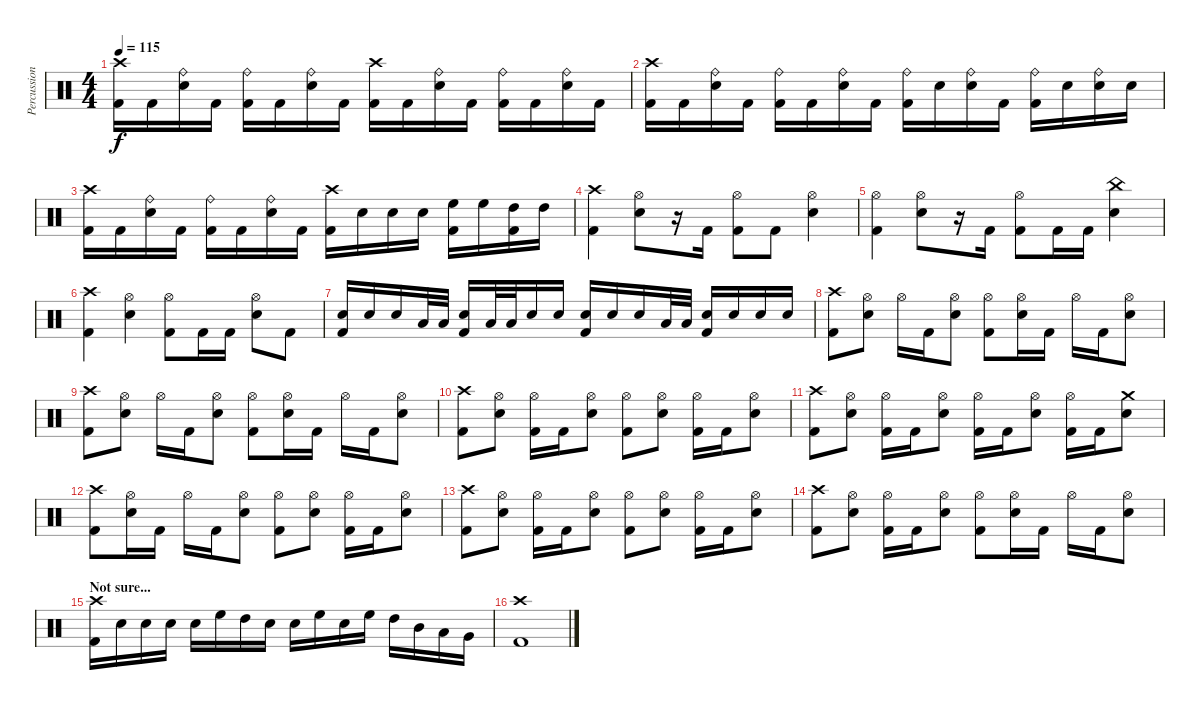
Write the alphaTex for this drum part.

\track ("Percussion" "Percussion") {instrument percussion}
\staff {score}
\articulation defaults
\ts (4 4)
\tempo 115
\clef neutral
\ks c
("Kick (hit) 2" "Crash high (hit)").16{dy f} "Kick (hit) 2".16 ("Electric Snare (hit)" "Ride (bell)").16 "Kick (hit) 2".16 ("Kick (hit) 2" "Ride (bell)").16 "Kick (hit) 2".16 ("Electric Snare (hit)" "Ride (bell)").16 "Kick (hit) 2".16 ("Kick (hit) 2" "Crash high (hit)").16 "Kick (hit) 2".16 ("Electric Snare (hit)" "Ride (bell)").16 "Kick (hit) 2".16 ("Kick (hit) 2" "Ride (bell)").16 "Kick (hit) 2".16 ("Electric Snare (hit)" "Ride (bell)").16 "Kick (hit) 2".16 |
("Kick (hit) 2" "Crash high (hit)").16 "Kick (hit) 2".16 ("Electric Snare (hit)" "Ride (bell)").16 "Kick (hit) 2".16 ("Kick (hit) 2" "Ride (bell)").16 "Kick (hit) 2".16 ("Electric Snare (hit)" "Ride (bell)").16 "Kick (hit) 2".16 ("Kick (hit) 2" "Ride (bell)").16 "Electric Snare (hit)".16 ("Electric Snare (hit)" "Ride (bell)").16 "Kick (hit) 2".16 ("Kick (hit) 2" "Ride (bell)").16 "Electric Snare (hit)".16 ("Electric Snare (hit)" "Ride (bell)").16 "Electric Snare (hit)".16 |
("Kick (hit) 2" "Crash high (hit)").16 "Kick (hit) 2".16 ("Electric Snare (hit)" "Ride (bell)").16 "Kick (hit) 2".16 ("Kick (hit) 2" "Ride (bell)").16 "Kick (hit) 2".16 ("Electric Snare (hit)" "Ride (bell)").16 "Kick (hit) 2".16 ("Kick (hit) 2" "Crash high (hit)").16 "Electric Snare (hit)".16 "Electric Snare (hit)".16 "Electric Snare (hit)".16 ("High Floor Tom (hit)" "Kick (hit) 2").16 "High Floor Tom (hit)".16 ("High Tom (hit)" "Kick (hit) 2").16 "High Tom (hit)".16 |
("Kick (hit) 2" "Crash high (hit)").4 ("Electric Snare (hit)" "Hi-Hat (open)").8 r.16 "Kick (hit) 2".16 ("Kick (hit) 2" "Hi-Hat (open)").8 "Kick (hit) 2".8 ("Electric Snare (hit)" "Hi-Hat (open)").4 |
("Kick (hit) 2" "Hi-Hat (open)").4 ("Electric Snare (hit)" "Hi-Hat (open)").8 r.16 "Kick (hit) 2".16 ("Kick (hit) 2" "Hi-Hat (open)").8 "Kick (hit) 2".16 "Kick (hit) 2".16 ("Electric Snare (hit)" "China (hit)").4 |
("Kick (hit) 2" "Crash high (hit)").4 ("Electric Snare (hit)" "Hi-Hat (open)").4 ("Kick (hit) 2" "Hi-Hat (open)").8 "Kick (hit) 2".16 "Kick (hit) 2".16 ("Electric Snare (hit)" "Hi-Hat (open)").8 "Kick (hit) 2".8 |
("Electric Snare (hit)" "Kick (hit) 2").16 "Electric Snare (hit)".16 "Electric Snare (hit)".16 "Low Tom (hit)".32 "Low Tom (hit)".32 ("Electric Snare (hit)" "Kick (hit) 2").16 "Low Tom (hit)".32 "Low Tom (hit)".32 "Electric Snare (hit)".16 "Electric Snare (hit)".16 ("Electric Snare (hit)" "Kick (hit) 2").16 "Electric Snare (hit)".16 "Electric Snare (hit)".16 "Low Tom (hit)".32 "Low Tom (hit)".32 ("Electric Snare (hit)" "Kick (hit) 2").16 "Electric Snare (hit)".16 "Electric Snare (hit)".16 "Electric Snare (hit)".16 |
("Kick (hit) 2" "Crash high (hit)").8 ("Electric Snare (hit)" "Hi-Hat (open)").8 "Hi-Hat (open)".16 "Kick (hit) 2".16 ("Electric Snare (hit)" "Hi-Hat (open)").8 ("Kick (hit) 2" "Hi-Hat (open)").8 ("Electric Snare (hit)" "Hi-Hat (open)").16 "Kick (hit) 2".16 "Hi-Hat (open)".16 "Kick (hit) 2".16 ("Electric Snare (hit)" "Hi-Hat (open)").8 |
("Kick (hit) 2" "Crash high (hit)").8 ("Electric Snare (hit)" "Hi-Hat (open)").8 "Hi-Hat (open)".16 "Kick (hit) 2".16 ("Electric Snare (hit)" "Hi-Hat (open)").8 ("Kick (hit) 2" "Hi-Hat (open)").8 ("Electric Snare (hit)" "Hi-Hat (open)").16 "Kick (hit) 2".16 "Hi-Hat (open)".16 "Kick (hit) 2".16 ("Electric Snare (hit)" "Hi-Hat (open)").8 |
("Kick (hit) 2" "Crash high (hit)").8 ("Electric Snare (hit)" "Hi-Hat (open)").8 ("Kick (hit) 2" "Hi-Hat (open)").16 "Kick (hit) 2".16 ("Electric Snare (hit)" "Hi-Hat (open)").8 ("Kick (hit) 2" "Hi-Hat (open)").8 ("Electric Snare (hit)" "Hi-Hat (open)").8 ("Kick (hit) 2" "Hi-Hat (open)").16 "Kick (hit) 2".16 ("Electric Snare (hit)" "Hi-Hat (open)").8 |
("Kick (hit) 2" "Crash high (hit)").8 ("Electric Snare (hit)" "Hi-Hat (open)").8 ("Kick (hit) 2" "Hi-Hat (open)").16 "Kick (hit) 2".16 ("Electric Snare (hit)" "Hi-Hat (open)").8 ("Kick (hit) 2" "Hi-Hat (open)").16 "Kick (hit) 2".16 ("Electric Snare (hit)" "Hi-Hat (open)").8 ("Kick (hit) 2" "Hi-Hat (open)").16 "Kick (hit) 2".16 ("Electric Snare (hit)" "Crash medium (hit)").8 |
("Kick (hit) 2" "Crash high (hit)").8 ("Electric Snare (hit)" "Hi-Hat (open)").16 "Kick (hit) 2".16 "Hi-Hat (open)".16 "Kick (hit) 2".16 ("Electric Snare (hit)" "Hi-Hat (open)").8 ("Kick (hit) 2" "Hi-Hat (open)").8 ("Electric Snare (hit)" "Hi-Hat (open)").8 ("Kick (hit) 2" "Hi-Hat (open)").16 "Kick (hit) 2".16 ("Electric Snare (hit)" "Hi-Hat (open)").8 |
("Kick (hit) 2" "Crash high (hit)").8 ("Electric Snare (hit)" "Hi-Hat (open)").8 ("Kick (hit) 2" "Hi-Hat (open)").16 "Kick (hit) 2".16 ("Electric Snare (hit)" "Hi-Hat (open)").8 ("Kick (hit) 2" "Hi-Hat (open)").8 ("Electric Snare (hit)" "Hi-Hat (open)").8 ("Kick (hit) 2" "Hi-Hat (open)").16 "Kick (hit) 2".16 ("Electric Snare (hit)" "Hi-Hat (open)").8 |
("Kick (hit) 2" "Crash high (hit)").8 ("Electric Snare (hit)" "Hi-Hat (open)").8 ("Kick (hit) 2" "Hi-Hat (open)").16 "Kick (hit) 2".16 ("Electric Snare (hit)" "Hi-Hat (open)").8 ("Kick (hit) 2" "Hi-Hat (open)").8 ("Electric Snare (hit)" "Hi-Hat (open)").16 "Kick (hit) 2".16 "Hi-Hat (open)".16 "Kick (hit) 2".16 ("Electric Snare (hit)" "Hi-Hat (open)").8 |
\section ("" "Not sure...")
("Kick (hit) 2" "Crash high (hit)").16 "Electric Snare (hit)".16 "Electric Snare (hit)".16 "Electric Snare (hit)".16 "Electric Snare (hit)".16 "High Floor Tom (hit)".16 "High Tom (hit)".16 "Electric Snare (hit)".16 "Electric Snare (hit)".16 "High Floor Tom (hit)".16 "Electric Snare (hit)".16 "High Floor Tom (hit)".16 "High Tom (hit)".16 "Mid Tom (hit)".16 "Low Tom (hit)".16 "Very Low Tom (hit)".16 |
("Kick (hit) 2" "Crash high (hit)").1
